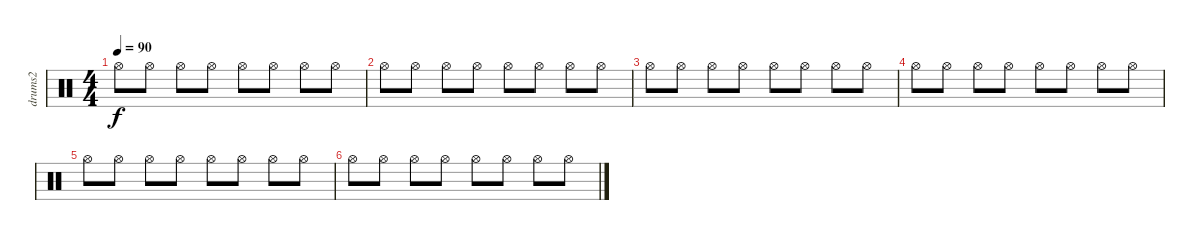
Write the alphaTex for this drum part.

\track ("drums2" "drums2") {instrument percussion}
\staff {score}
\articulation defaults
\ts (4 4)
\tempo 90
\clef neutral
\ks c "Hi-Hat (open)".8{dy f} "Hi-Hat (open)".8 "Hi-Hat (open)".8 "Hi-Hat (open)".8 "Hi-Hat (open)".8 "Hi-Hat (open)".8 "Hi-Hat (open)".8 "Hi-Hat (open)".8
|
"Hi-Hat (open)".8 "Hi-Hat (open)".8 "Hi-Hat (open)".8 "Hi-Hat (open)".8 "Hi-Hat (open)".8 "Hi-Hat (open)".8 "Hi-Hat (open)".8 "Hi-Hat (open)".8 |
"Hi-Hat (open)".8 "Hi-Hat (open)".8 "Hi-Hat (open)".8 "Hi-Hat (open)".8 "Hi-Hat (open)".8 "Hi-Hat (open)".8 "Hi-Hat (open)".8 "Hi-Hat (open)".8 |
"Hi-Hat (open)".8 "Hi-Hat (open)".8 "Hi-Hat (open)".8 "Hi-Hat (open)".8 "Hi-Hat (open)".8 "Hi-Hat (open)".8 "Hi-Hat (open)".8 "Hi-Hat (open)".8 |
"Hi-Hat (open)".8 "Hi-Hat (open)".8 "Hi-Hat (open)".8 "Hi-Hat (open)".8 "Hi-Hat (open)".8 "Hi-Hat (open)".8 "Hi-Hat (open)".8 "Hi-Hat (open)".8 |
"Hi-Hat (open)".8 "Hi-Hat (open)".8 "Hi-Hat (open)".8 "Hi-Hat (open)".8 "Hi-Hat (open)".8 "Hi-Hat (open)".8 "Hi-Hat (open)".8 "Hi-Hat (open)".8
